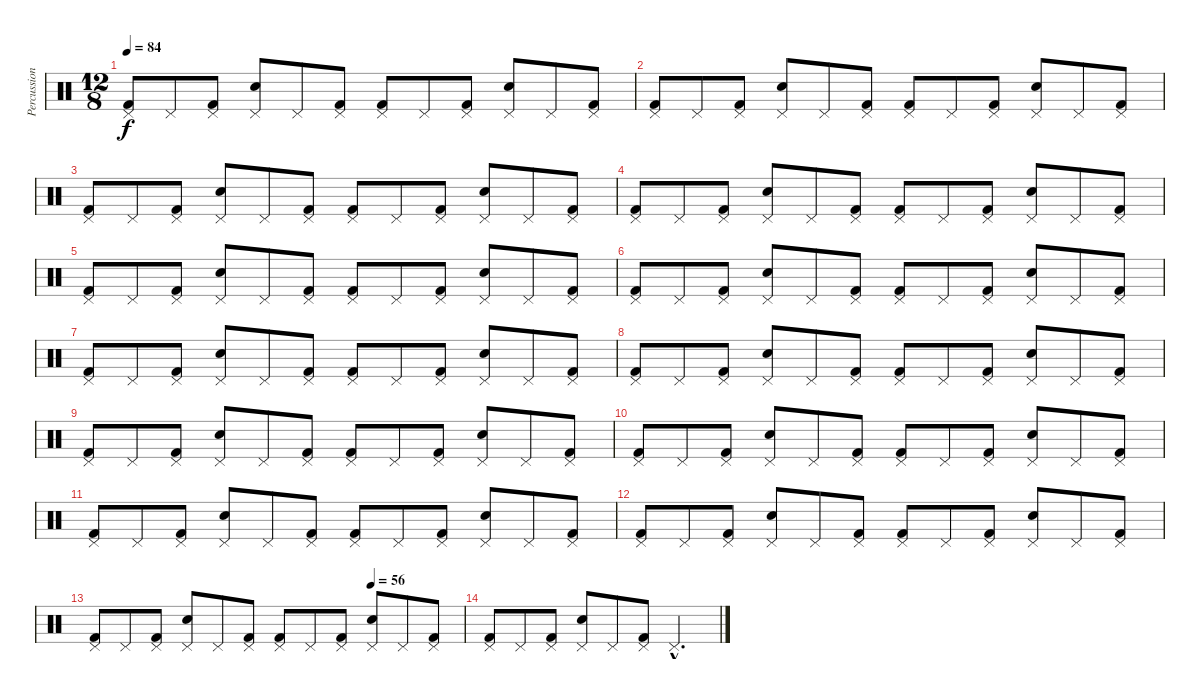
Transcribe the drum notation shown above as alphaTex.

\track ("Percussion" "Percussion") {instrument percussion}
\staff {score}
\articulation defaults
\ts (12 8)
\tempo 84
\clef neutral
\ks c
("Kick (hit) 2" "Pedal Hi-Hat (hit)").8{dy f} "Pedal Hi-Hat (hit)".8 ("Kick (hit) 2" "Pedal Hi-Hat (hit)").8 ("Snare (hit) 2" "Pedal Hi-Hat (hit)").8 "Pedal Hi-Hat (hit)".8 ("Kick (hit) 2" "Pedal Hi-Hat (hit)").8 ("Kick (hit) 2" "Pedal Hi-Hat (hit)").8 "Pedal Hi-Hat (hit)".8 ("Kick (hit) 2" "Pedal Hi-Hat (hit)").8 ("Snare (hit) 2" "Pedal Hi-Hat (hit)").8 "Pedal Hi-Hat (hit)".8 ("Kick (hit) 2" "Pedal Hi-Hat (hit)").8 |
("Kick (hit) 2" "Pedal Hi-Hat (hit)").8 "Pedal Hi-Hat (hit)".8 ("Kick (hit) 2" "Pedal Hi-Hat (hit)").8 ("Snare (hit) 2" "Pedal Hi-Hat (hit)").8 "Pedal Hi-Hat (hit)".8 ("Kick (hit) 2" "Pedal Hi-Hat (hit)").8 ("Kick (hit) 2" "Pedal Hi-Hat (hit)").8 "Pedal Hi-Hat (hit)".8 ("Kick (hit) 2" "Pedal Hi-Hat (hit)").8 ("Snare (hit) 2" "Pedal Hi-Hat (hit)").8 "Pedal Hi-Hat (hit)".8 ("Kick (hit) 2" "Pedal Hi-Hat (hit)").8 |
("Kick (hit) 2" "Pedal Hi-Hat (hit)").8 "Pedal Hi-Hat (hit)".8 ("Kick (hit) 2" "Pedal Hi-Hat (hit)").8 ("Snare (hit) 2" "Pedal Hi-Hat (hit)").8 "Pedal Hi-Hat (hit)".8 ("Kick (hit) 2" "Pedal Hi-Hat (hit)").8 ("Kick (hit) 2" "Pedal Hi-Hat (hit)").8 "Pedal Hi-Hat (hit)".8 ("Kick (hit) 2" "Pedal Hi-Hat (hit)").8 ("Snare (hit) 2" "Pedal Hi-Hat (hit)").8 "Pedal Hi-Hat (hit)".8 ("Kick (hit) 2" "Pedal Hi-Hat (hit)").8 |
("Kick (hit) 2" "Pedal Hi-Hat (hit)").8 "Pedal Hi-Hat (hit)".8 ("Kick (hit) 2" "Pedal Hi-Hat (hit)").8 ("Snare (hit) 2" "Pedal Hi-Hat (hit)").8 "Pedal Hi-Hat (hit)".8 ("Kick (hit) 2" "Pedal Hi-Hat (hit)").8 ("Kick (hit) 2" "Pedal Hi-Hat (hit)").8 "Pedal Hi-Hat (hit)".8 ("Kick (hit) 2" "Pedal Hi-Hat (hit)").8 ("Snare (hit) 2" "Pedal Hi-Hat (hit)").8 "Pedal Hi-Hat (hit)".8 ("Kick (hit) 2" "Pedal Hi-Hat (hit)").8 |
("Kick (hit) 2" "Pedal Hi-Hat (hit)").8 "Pedal Hi-Hat (hit)".8 ("Kick (hit) 2" "Pedal Hi-Hat (hit)").8 ("Snare (hit) 2" "Pedal Hi-Hat (hit)").8 "Pedal Hi-Hat (hit)".8 ("Kick (hit) 2" "Pedal Hi-Hat (hit)").8 ("Kick (hit) 2" "Pedal Hi-Hat (hit)").8 "Pedal Hi-Hat (hit)".8 ("Kick (hit) 2" "Pedal Hi-Hat (hit)").8 ("Snare (hit) 2" "Pedal Hi-Hat (hit)").8 "Pedal Hi-Hat (hit)".8 ("Kick (hit) 2" "Pedal Hi-Hat (hit)").8 |
("Kick (hit) 2" "Pedal Hi-Hat (hit)").8 "Pedal Hi-Hat (hit)".8 ("Kick (hit) 2" "Pedal Hi-Hat (hit)").8 ("Snare (hit) 2" "Pedal Hi-Hat (hit)").8 "Pedal Hi-Hat (hit)".8 ("Kick (hit) 2" "Pedal Hi-Hat (hit)").8 ("Kick (hit) 2" "Pedal Hi-Hat (hit)").8 "Pedal Hi-Hat (hit)".8 ("Kick (hit) 2" "Pedal Hi-Hat (hit)").8 ("Snare (hit) 2" "Pedal Hi-Hat (hit)").8 "Pedal Hi-Hat (hit)".8 ("Kick (hit) 2" "Pedal Hi-Hat (hit)").8 |
("Kick (hit) 2" "Pedal Hi-Hat (hit)").8 "Pedal Hi-Hat (hit)".8 ("Kick (hit) 2" "Pedal Hi-Hat (hit)").8 ("Snare (hit) 2" "Pedal Hi-Hat (hit)").8 "Pedal Hi-Hat (hit)".8 ("Kick (hit) 2" "Pedal Hi-Hat (hit)").8 ("Kick (hit) 2" "Pedal Hi-Hat (hit)").8 "Pedal Hi-Hat (hit)".8 ("Kick (hit) 2" "Pedal Hi-Hat (hit)").8 ("Snare (hit) 2" "Pedal Hi-Hat (hit)").8 "Pedal Hi-Hat (hit)".8 ("Kick (hit) 2" "Pedal Hi-Hat (hit)").8 |
("Kick (hit) 2" "Pedal Hi-Hat (hit)").8 "Pedal Hi-Hat (hit)".8 ("Kick (hit) 2" "Pedal Hi-Hat (hit)").8 ("Snare (hit) 2" "Pedal Hi-Hat (hit)").8 "Pedal Hi-Hat (hit)".8 ("Kick (hit) 2" "Pedal Hi-Hat (hit)").8 ("Kick (hit) 2" "Pedal Hi-Hat (hit)").8 "Pedal Hi-Hat (hit)".8 ("Kick (hit) 2" "Pedal Hi-Hat (hit)").8 ("Snare (hit) 2" "Pedal Hi-Hat (hit)").8 "Pedal Hi-Hat (hit)".8 ("Kick (hit) 2" "Pedal Hi-Hat (hit)").8 |
("Kick (hit) 2" "Pedal Hi-Hat (hit)").8 "Pedal Hi-Hat (hit)".8 ("Kick (hit) 2" "Pedal Hi-Hat (hit)").8 ("Snare (hit) 2" "Pedal Hi-Hat (hit)").8 "Pedal Hi-Hat (hit)".8 ("Kick (hit) 2" "Pedal Hi-Hat (hit)").8 ("Kick (hit) 2" "Pedal Hi-Hat (hit)").8 "Pedal Hi-Hat (hit)".8 ("Kick (hit) 2" "Pedal Hi-Hat (hit)").8 ("Snare (hit) 2" "Pedal Hi-Hat (hit)").8 "Pedal Hi-Hat (hit)".8 ("Kick (hit) 2" "Pedal Hi-Hat (hit)").8 |
("Kick (hit) 2" "Pedal Hi-Hat (hit)").8 "Pedal Hi-Hat (hit)".8 ("Kick (hit) 2" "Pedal Hi-Hat (hit)").8 ("Snare (hit) 2" "Pedal Hi-Hat (hit)").8 "Pedal Hi-Hat (hit)".8 ("Kick (hit) 2" "Pedal Hi-Hat (hit)").8 ("Kick (hit) 2" "Pedal Hi-Hat (hit)").8 "Pedal Hi-Hat (hit)".8 ("Kick (hit) 2" "Pedal Hi-Hat (hit)").8 ("Snare (hit) 2" "Pedal Hi-Hat (hit)").8 "Pedal Hi-Hat (hit)".8 ("Kick (hit) 2" "Pedal Hi-Hat (hit)").8 |
("Kick (hit) 2" "Pedal Hi-Hat (hit)").8 "Pedal Hi-Hat (hit)".8 ("Kick (hit) 2" "Pedal Hi-Hat (hit)").8 ("Snare (hit) 2" "Pedal Hi-Hat (hit)").8 "Pedal Hi-Hat (hit)".8 ("Kick (hit) 2" "Pedal Hi-Hat (hit)").8 ("Kick (hit) 2" "Pedal Hi-Hat (hit)").8 "Pedal Hi-Hat (hit)".8 ("Kick (hit) 2" "Pedal Hi-Hat (hit)").8 ("Snare (hit) 2" "Pedal Hi-Hat (hit)").8 "Pedal Hi-Hat (hit)".8 ("Kick (hit) 2" "Pedal Hi-Hat (hit)").8 |
("Kick (hit) 2" "Pedal Hi-Hat (hit)").8 "Pedal Hi-Hat (hit)".8 ("Kick (hit) 2" "Pedal Hi-Hat (hit)").8 ("Snare (hit) 2" "Pedal Hi-Hat (hit)").8 "Pedal Hi-Hat (hit)".8 ("Kick (hit) 2" "Pedal Hi-Hat (hit)").8 ("Kick (hit) 2" "Pedal Hi-Hat (hit)").8 "Pedal Hi-Hat (hit)".8 ("Kick (hit) 2" "Pedal Hi-Hat (hit)").8 ("Snare (hit) 2" "Pedal Hi-Hat (hit)").8 "Pedal Hi-Hat (hit)".8 ("Kick (hit) 2" "Pedal Hi-Hat (hit)").8 |
\tempo (56 0.75)
("Kick (hit) 2" "Pedal Hi-Hat (hit)").8 "Pedal Hi-Hat (hit)".8 ("Kick (hit) 2" "Pedal Hi-Hat (hit)").8 ("Snare (hit) 2" "Pedal Hi-Hat (hit)").8 "Pedal Hi-Hat (hit)".8 ("Kick (hit) 2" "Pedal Hi-Hat (hit)").8 ("Kick (hit) 2" "Pedal Hi-Hat (hit)").8 "Pedal Hi-Hat (hit)".8 ("Kick (hit) 2" "Pedal Hi-Hat (hit)").8 ("Snare (hit) 2" "Pedal Hi-Hat (hit)").8 "Pedal Hi-Hat (hit)".8 ("Kick (hit) 2" "Pedal Hi-Hat (hit)").8 |
("Kick (hit) 2" "Pedal Hi-Hat (hit)").8 "Pedal Hi-Hat (hit)".8 ("Kick (hit) 2" "Pedal Hi-Hat (hit)").8 ("Snare (hit) 2" "Pedal Hi-Hat (hit)").8 "Pedal Hi-Hat (hit)".8 ("Kick (hit) 2" "Pedal Hi-Hat (hit)").8 "Pedal Hi-Hat (hit)"{hac}.2{d}
